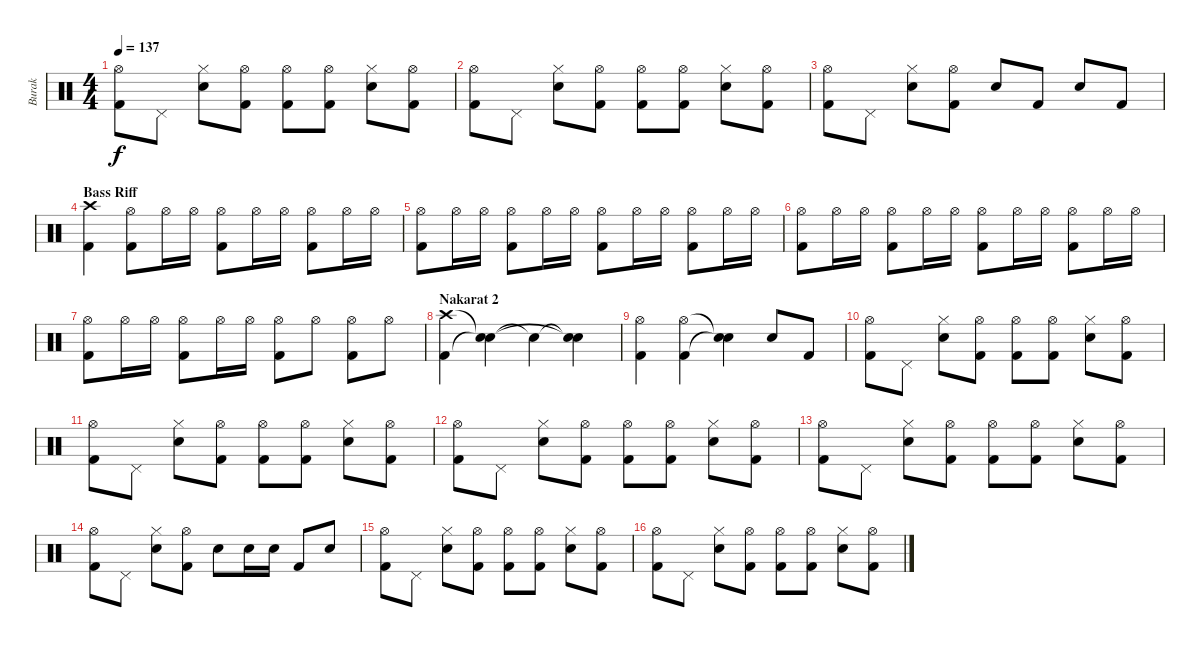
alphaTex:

\track ("Burak" "Burak") {instrument percussion}
\staff {score}
\articulation defaults
\ts (4 4)
\tempo 137
\clef neutral
\ks c
("Kick (hit) 2" "Hi-Hat (open)").8{dy f} "Pedal Hi-Hat (hit)".8 ("Electric Snare (hit)" "Hi-Hat (closed)").8 ("Kick (hit) 2" "Hi-Hat (open)").8 ("Kick (hit) 2" "Hi-Hat (open)").8 ("Kick (hit) 2" "Hi-Hat (open)").8 ("Electric Snare (hit)" "Hi-Hat (closed)").8 ("Kick (hit) 2" "Hi-Hat (open)").8 |
("Kick (hit) 2" "Hi-Hat (open)").8 "Pedal Hi-Hat (hit)".8 ("Electric Snare (hit)" "Hi-Hat (closed)").8 ("Kick (hit) 2" "Hi-Hat (open)").8 ("Kick (hit) 2" "Hi-Hat (open)").8 ("Kick (hit) 2" "Hi-Hat (open)").8 ("Electric Snare (hit)" "Hi-Hat (closed)").8 ("Kick (hit) 2" "Hi-Hat (open)").8 |
("Kick (hit) 2" "Hi-Hat (open)").8 "Pedal Hi-Hat (hit)".8 ("Electric Snare (hit)" "Hi-Hat (closed)").8 ("Kick (hit) 2" "Hi-Hat (open)").8 "Electric Snare (hit)".8 "Kick (hit) 2".8 "Electric Snare (hit)".8 "Kick (hit) 2".8 |
\section ("" "Bass Riff")
("Kick (hit) 2" "Crash high (hit)").4{volume 10} ("Hi-Hat (open)" "Kick (hit) 2").8 "Hi-Hat (open)".16 "Hi-Hat (open)".16 ("Hi-Hat (open)" "Kick (hit) 2").8 "Hi-Hat (open)".16 "Hi-Hat (open)".16 ("Hi-Hat (open)" "Kick (hit) 2").8 "Hi-Hat (open)".16 "Hi-Hat (open)".16 |
("Hi-Hat (open)" "Kick (hit) 2").8 "Hi-Hat (open)".16 "Hi-Hat (open)".16 ("Hi-Hat (open)" "Kick (hit) 2").8 "Hi-Hat (open)".16 "Hi-Hat (open)".16 ("Hi-Hat (open)" "Kick (hit) 2").8 "Hi-Hat (open)".16 "Hi-Hat (open)".16 ("Hi-Hat (open)" "Kick (hit) 2").8 "Hi-Hat (open)".16 "Hi-Hat (open)".16 |
("Hi-Hat (open)" "Kick (hit) 2").8 "Hi-Hat (open)".16 "Hi-Hat (open)".16 ("Hi-Hat (open)" "Kick (hit) 2").8 "Hi-Hat (open)".16 "Hi-Hat (open)".16 ("Hi-Hat (open)" "Kick (hit) 2").8 "Hi-Hat (open)".16 "Hi-Hat (open)".16 ("Hi-Hat (open)" "Kick (hit) 2").8 "Hi-Hat (open)".16 "Hi-Hat (open)".16 |
("Hi-Hat (open)" "Kick (hit) 2").8 "Hi-Hat (open)".16 "Hi-Hat (open)".16 ("Hi-Hat (open)" "Kick (hit) 2").8 "Hi-Hat (open)".16 "Hi-Hat (open)".16 ("Hi-Hat (open)" "Kick (hit) 2").8 "Hi-Hat (open)".8 ("Hi-Hat (open)" "Kick (hit) 2").8 "Hi-Hat (open)".8 |
\section ("" "Nakarat 2")
("Kick (hit) 2" "Crash high (hit)").4{volume 15} ("Snare (hit)"{t} "Snare (hit)"{t}).4 "Snare (hit)"{t}.4 ("Snare (hit)"{t} "Snare (hit)"{t}).4 |
("Kick (hit) 2" "Hi-Hat (open)").4 ("Kick (hit) 2" "Hi-Hat (open)").4 ("Snare (hit)"{t} "Snare (hit)"{t}).4 "Electric Snare (hit)".8 "Kick (hit) 2".8 |
("Kick (hit) 2" "Hi-Hat (open)").8 "Pedal Hi-Hat (hit)".8 ("Electric Snare (hit)" "Hi-Hat (closed)").8 ("Kick (hit) 2" "Hi-Hat (open)").8 ("Kick (hit) 2" "Hi-Hat (open)").8 ("Kick (hit) 2" "Hi-Hat (open)").8 ("Electric Snare (hit)" "Hi-Hat (closed)").8 ("Kick (hit) 2" "Hi-Hat (open)").8 |
("Kick (hit) 2" "Hi-Hat (open)").8 "Pedal Hi-Hat (hit)".8 ("Electric Snare (hit)" "Hi-Hat (closed)").8 ("Kick (hit) 2" "Hi-Hat (open)").8 ("Kick (hit) 2" "Hi-Hat (open)").8 ("Kick (hit) 2" "Hi-Hat (open)").8 ("Electric Snare (hit)" "Hi-Hat (closed)").8 ("Kick (hit) 2" "Hi-Hat (open)").8 |
("Kick (hit) 2" "Hi-Hat (open)").8 "Pedal Hi-Hat (hit)".8 ("Electric Snare (hit)" "Hi-Hat (closed)").8 ("Kick (hit) 2" "Hi-Hat (open)").8 ("Kick (hit) 2" "Hi-Hat (open)").8 ("Kick (hit) 2" "Hi-Hat (open)").8 ("Electric Snare (hit)" "Hi-Hat (closed)").8 ("Kick (hit) 2" "Hi-Hat (open)").8 |
("Kick (hit) 2" "Hi-Hat (open)").8 "Pedal Hi-Hat (hit)".8 ("Electric Snare (hit)" "Hi-Hat (closed)").8 ("Kick (hit) 2" "Hi-Hat (open)").8 ("Kick (hit) 2" "Hi-Hat (open)").8 ("Kick (hit) 2" "Hi-Hat (open)").8 ("Electric Snare (hit)" "Hi-Hat (closed)").8 ("Kick (hit) 2" "Hi-Hat (open)").8 |
("Kick (hit) 2" "Hi-Hat (open)").8 "Pedal Hi-Hat (hit)".8 ("Electric Snare (hit)" "Hi-Hat (closed)").8 ("Kick (hit) 2" "Hi-Hat (open)").8 "Electric Snare (hit)".8 "Electric Snare (hit)".16 "Electric Snare (hit)".16 "Kick (hit) 2".8 "Electric Snare (hit)".8 |
("Kick (hit) 2" "Hi-Hat (open)").8 "Pedal Hi-Hat (hit)".8 ("Electric Snare (hit)" "Hi-Hat (closed)").8 ("Kick (hit) 2" "Hi-Hat (open)").8 ("Kick (hit) 2" "Hi-Hat (open)").8 ("Kick (hit) 2" "Hi-Hat (open)").8 ("Electric Snare (hit)" "Hi-Hat (closed)").8 ("Kick (hit) 2" "Hi-Hat (open)").8 |
("Kick (hit) 2" "Hi-Hat (open)").8 "Pedal Hi-Hat (hit)".8 ("Electric Snare (hit)" "Hi-Hat (closed)").8 ("Kick (hit) 2" "Hi-Hat (open)").8 ("Kick (hit) 2" "Hi-Hat (open)").8 ("Kick (hit) 2" "Hi-Hat (open)").8 ("Electric Snare (hit)" "Hi-Hat (closed)").8 ("Kick (hit) 2" "Hi-Hat (open)").8
